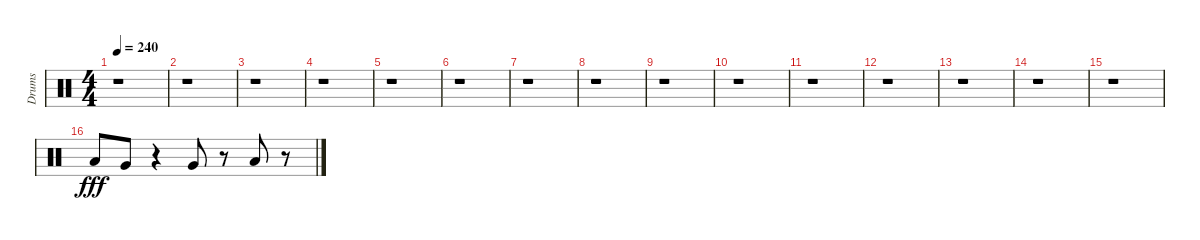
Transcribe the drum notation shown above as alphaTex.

\track ("Drums" "Drums") {instrument percussion}
\staff {score}
\articulation defaults
\ts (4 4)
\tempo 240
\clef neutral
\ks c
r.1{dy fff} |
r.1 |
r.1 |
r.1 |
r.1 |
r.1 |
r.1 |
r.1 |
r.1 |
r.1 |
r.1 |
r.1 |
r.1 |
r.1 |
r.1 |
"Low Tom (hit)".8 "Very Low Tom (hit)".8 r.4 "Very Low Tom (hit)".8 r.8 "Low Floor Tom (hit)".8 r.8
